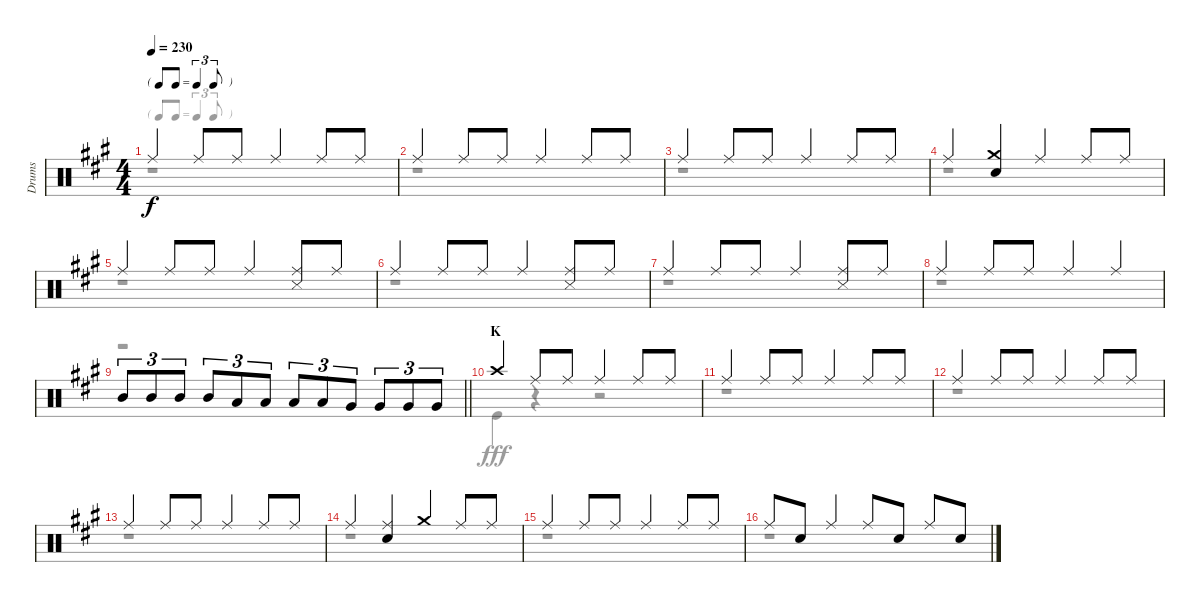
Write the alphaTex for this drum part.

\track ("Drums" "Drums") {instrument percussion}
\staff {score}
\articulation defaults
\voice
\ts (4 4)
\tf triplet8th
\tempo 230
\clef neutral
\ks a "Ride (middle)".4{dy f} "Ride (middle)".8 "Ride (middle)".8 "Ride (middle)".4 "Ride (middle)".8 "Ride (middle)".8
|
"Ride (middle)".4 "Ride (middle)".8 "Ride (middle)".8 "Ride (middle)".4 "Ride (middle)".8 "Ride (middle)".8 |
"Ride (middle)".4 "Ride (middle)".8 "Ride (middle)".8 "Ride (middle)".4 "Ride (middle)".8 "Ride (middle)".8 |
"Ride (middle)".4 ("Crash medium (hit)" "Snare (hit) 2").4 "Ride (middle)".4 "Ride (middle)".8 "Ride (middle)".8 |
"Ride (middle)".4 "Ride (middle)".8 "Ride (middle)".8 "Ride (middle)".4 ("Ride (middle)" "Snare (side stick) 3").8 "Ride (middle)".8 |
"Ride (middle)".4 "Ride (middle)".8 "Ride (middle)".8 "Ride (middle)".4 ("Ride (middle)" "Snare (side stick) 3").8 "Ride (middle)".8 |
"Ride (middle)".4 "Ride (middle)".8 "Ride (middle)".8 "Ride (middle)".4 ("Ride (middle)" "Snare (side stick) 3").8 "Ride (middle)".8 |
"Ride (middle)".4 "Ride (middle)".8 "Ride (middle)".8 "Ride (middle)".4 "Ride (middle)".4 |
\barLineRight lightlight "Mid Tom (hit)".8{tu (3 2)} "Mid Tom (hit)".8{tu (3 2)} "Mid Tom (hit)".8{tu (3 2)} "Mid Tom (hit)".8{tu (3 2)} "Low Tom (hit)".8{tu (3 2)} "Low Tom (hit)".8{tu (3 2)} "Low Tom (hit)".8{tu (3 2)} "Low Tom (hit)".8{tu (3 2)} "Very Low Tom (hit)".8{tu (3 2)} "Very Low Tom (hit)".8{tu (3 2)} "Very Low Tom (hit)".8{tu (3 2)} "Very Low Tom (hit)".8{tu (3 2)}
|
\section ("" "K")
"Crash high (hit)".4 "Ride (middle)".8 "Ride (middle)".8 "Ride (middle)".4 "Ride (middle)".8 "Ride (middle)".8 |
"Ride (middle)".4 "Ride (middle)".8 "Ride (middle)".8 "Ride (middle)".4 "Ride (middle)".8 "Ride (middle)".8 |
"Ride (middle)".4 "Ride (middle)".8 "Ride (middle)".8 "Ride (middle)".4 "Ride (middle)".8 "Ride (middle)".8 |
"Ride (middle)".4 "Ride (middle)".8 "Ride (middle)".8 "Ride (middle)".4 "Ride (middle)".8 "Ride (middle)".8 |
"Ride (middle)".4 ("Ride (middle)" "Snare (hit) 2").4 "Crash medium (hit)".4 "Ride (middle)".8 "Ride (middle)".8 |
"Ride (middle)".4 "Ride (middle)".8 "Ride (middle)".8 "Ride (middle)".4 "Ride (middle)".8 "Ride (middle)".8 |
"Ride (middle)".8 "Snare (hit) 2".8 "Ride (middle)".4 "Ride (middle)".8 "Snare (hit) 2".8 "Ride (middle)".8 "Snare (hit) 2".8
\voice
\clef neutral
\ottava regular
\simile none
\ks a
r.1{dy fff} |
r.1 |
r.1 |
r.1 |
r.1 |
r.1 |
r.1 |
r.1 |
\barLineRight lightlight
r.1 |
"Kick (hit)".4 r.4 r.2 |
r.1 |
r.1 |
r.1 |
r.1 |
r.1 |
r.1
